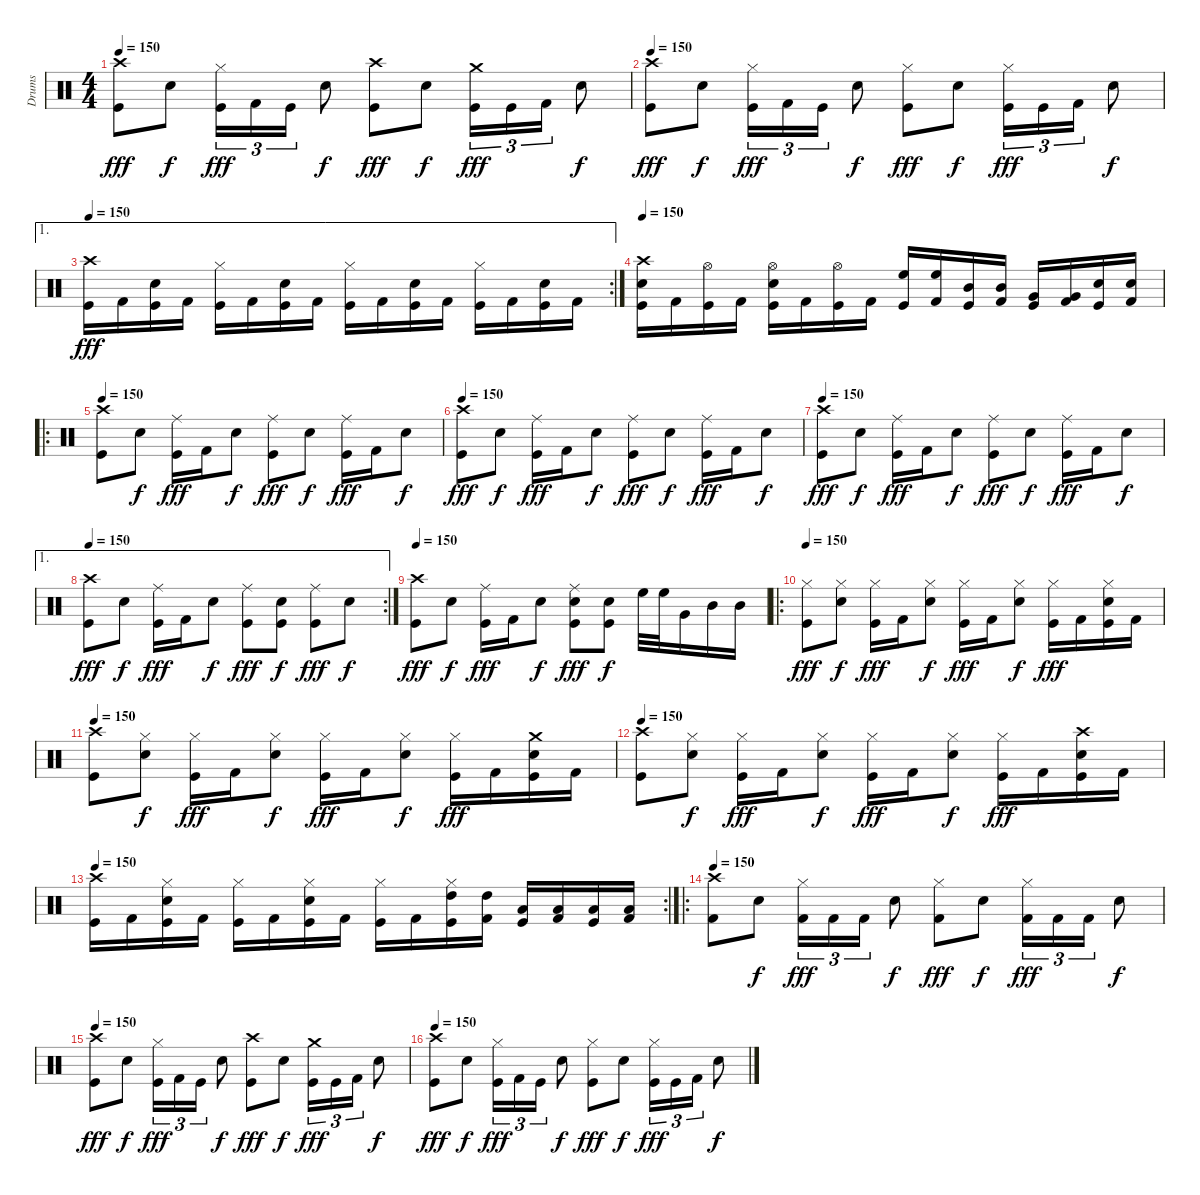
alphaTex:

\track ("Drums" "Drums") {instrument percussion}
\staff {score}
\articulation defaults
\ts (4 4)
\tempo 150
\clef neutral
\ks c
("Crash high (hit)" "Kick (hit)").8{dy fff} "Snare (hit) 2".8{dy f} ("Hi-Hat (closed)" "Kick (hit)").16{tu (3 2) dy fff} "Kick (hit) 2".16{tu (3 2)} "Kick (hit)".16{tu (3 2)} "Snare (hit) 2".8{dy f} ("Crash high (hit)" "Kick (hit)").8{dy fff} "Snare (hit) 2".8{dy f} ("Crash medium (hit)" "Kick (hit)").16{tu (3 2) dy fff} "Kick (hit)".16{tu (3 2)} "Kick (hit) 2".16{tu (3 2)} "Snare (hit) 2".8{dy f} |
\tempo 150
("Crash high (hit)" "Kick (hit)").8{dy fff} "Snare (hit) 2".8{dy f} ("Hi-Hat (closed)" "Kick (hit)").16{tu (3 2) dy fff} "Kick (hit) 2".16{tu (3 2)} "Kick (hit)".16{tu (3 2)} "Snare (hit) 2".8{dy f} ("Hi-Hat (closed)" "Kick (hit)").8{dy fff} "Snare (hit) 2".8{dy f} ("Hi-Hat (closed)" "Kick (hit)").16{tu (3 2) dy fff} "Kick (hit)".16{tu (3 2)} "Kick (hit) 2".16{tu (3 2)} "Snare (hit) 2".8{dy f} |
\ae 1
\rc 2
\tempo 150
("Crash high (hit)" "Kick (hit)").16{dy fff} "Kick (hit) 2".16 ("Snare (hit) 2" "Kick (hit)").16 "Kick (hit) 2".16 ("Hi-Hat (closed)" "Kick (hit)").16 "Kick (hit) 2".16 ("Snare (hit) 2" "Kick (hit)").16 "Kick (hit) 2".16 ("Hi-Hat (closed)" "Kick (hit)").16 "Kick (hit) 2".16 ("Snare (hit) 2" "Kick (hit)").16 "Kick (hit) 2".16 ("Hi-Hat (closed)" "Kick (hit)").16 "Kick (hit) 2".16 ("Snare (hit) 2" "Kick (hit)").16 "Kick (hit) 2".16 |
\tempo 150
("Crash high (hit)" "Snare (hit) 2" "Kick (hit)").16 "Kick (hit) 2".16 ("Hi-Hat (open)" "Kick (hit)").16 "Kick (hit) 2".16 ("Hi-Hat (open)" "Snare (hit) 2" "Kick (hit)").16 "Kick (hit) 2".16 ("Hi-Hat (open)" "Kick (hit)").16 "Kick (hit) 2".16 ("High Floor Tom (hit)" "Kick (hit)").16 ("High Floor Tom (hit)" "Kick (hit) 2").16 ("Mid Tom (hit)" "Kick (hit)").16 ("Mid Tom (hit)" "Kick (hit) 2").16 ("Very Low Tom (hit)" "Kick (hit)").16 ("Very Low Tom (hit)" "Kick (hit) 2").16 ("Snare (hit) 2" "Kick (hit)").16 ("Snare (hit) 2" "Kick (hit) 2").16 |
\ro
\tempo 150
("Crash high (hit)" "Kick (hit)").8 "Snare (hit) 2".8{dy f} ("Ride (middle)" "Kick (hit)").16{dy fff} "Kick (hit) 2".16 "Snare (hit) 2".8{dy f} ("Ride (middle)" "Kick (hit)").8{dy fff} "Snare (hit) 2".8{dy f} ("Ride (middle)" "Kick (hit)").16{dy fff} "Kick (hit) 2".16 "Snare (hit) 2".8{dy f} |
\tempo 150
("Crash high (hit)" "Kick (hit)").8{dy fff} "Snare (hit) 2".8{dy f} ("Ride (middle)" "Kick (hit)").16{dy fff} "Kick (hit) 2".16 "Snare (hit) 2".8{dy f} ("Ride (middle)" "Kick (hit)").8{dy fff} "Snare (hit) 2".8{dy f} ("Ride (middle)" "Kick (hit)").16{dy fff} "Kick (hit) 2".16 "Snare (hit) 2".8{dy f} |
\tempo 150
("Crash high (hit)" "Kick (hit)").8{dy fff} "Snare (hit) 2".8{dy f} ("Ride (middle)" "Kick (hit)").16{dy fff} "Kick (hit) 2".16 "Snare (hit) 2".8{dy f} ("Ride (middle)" "Kick (hit)").8{dy fff} "Snare (hit) 2".8{dy f} ("Ride (middle)" "Kick (hit)").16{dy fff} "Kick (hit) 2".16 "Snare (hit) 2".8{dy f} |
\ae 1
\rc 2
\tempo 150
("Crash high (hit)" "Kick (hit)").8{dy fff} "Snare (hit) 2".8{dy f} ("Ride (middle)" "Kick (hit)").16{dy fff} "Kick (hit) 2".16 "Snare (hit) 2".8{dy f} ("Ride (middle)" "Kick (hit)").8{dy fff} ("Snare (hit) 2" "Kick (hit)").8{dy f} ("Ride (middle)" "Kick (hit)").8{dy fff} "Snare (hit) 2".8{dy f} |
\tempo 150
("Crash high (hit)" "Kick (hit)").8{dy fff} "Snare (hit) 2".8{dy f} ("Ride (middle)" "Kick (hit)").16{dy fff} "Kick (hit) 2".16 "Snare (hit) 2".8{dy f} ("Ride (middle)" "Snare (hit) 2" "Kick (hit)").8{dy fff} ("Snare (hit) 2" "Kick (hit)").8{dy f} "High Floor Tom (hit)".32 "High Floor Tom (hit)".32 "Very Low Tom (hit)".16 "Mid Tom (hit)".16 "Mid Tom (hit)".16 |
\ro
\tempo 150
("Hi-Hat (closed)" "Kick (hit)").8{dy fff} ("Hi-Hat (closed)" "Snare (hit) 2").8{dy f} ("Hi-Hat (closed)" "Kick (hit)").16{dy fff} "Kick (hit) 2".16 ("Hi-Hat (closed)" "Snare (hit) 2").8{dy f} ("Hi-Hat (closed)" "Kick (hit)").16{dy fff} "Kick (hit) 2".16 ("Hi-Hat (closed)" "Snare (hit) 2").8{dy f} ("Hi-Hat (closed)" "Kick (hit)").16{dy fff} "Kick (hit) 2".16 ("Hi-Hat (closed)" "Snare (hit) 2" "Kick (hit)").16 "Kick (hit) 2".16 |
\tempo 150
("Crash high (hit)" "Kick (hit)").8 ("Hi-Hat (closed)" "Snare (hit) 2").8{dy f} ("Hi-Hat (closed)" "Kick (hit)").16{dy fff} "Kick (hit) 2".16 ("Hi-Hat (closed)" "Snare (hit) 2").8{dy f} ("Hi-Hat (closed)" "Kick (hit)").16{dy fff} "Kick (hit) 2".16 ("Hi-Hat (closed)" "Snare (hit) 2").8{dy f} ("Hi-Hat (closed)" "Kick (hit)").16{dy fff} "Kick (hit) 2".16 ("Crash medium (hit)" "Snare (hit) 2" "Kick (hit)").16 "Kick (hit) 2".16 |
\tempo 150
("Crash high (hit)" "Kick (hit)").8 ("Hi-Hat (closed)" "Snare (hit) 2").8{dy f} ("Hi-Hat (closed)" "Kick (hit)").16{dy fff} "Kick (hit) 2".16 ("Hi-Hat (closed)" "Snare (hit) 2").8{dy f} ("Hi-Hat (closed)" "Kick (hit)").16{dy fff} "Kick (hit) 2".16 ("Hi-Hat (closed)" "Snare (hit) 2").8{dy f} ("Hi-Hat (closed)" "Kick (hit)").16{dy fff} "Kick (hit) 2".16 ("Crash high (hit)" "Snare (hit) 2" "Kick (hit)").16 "Kick (hit) 2".16 |
\rc 2
\tempo 150
("Crash high (hit)" "Kick (hit)").16 "Kick (hit) 2".16 ("Hi-Hat (closed)" "Snare (hit) 2" "Kick (hit)").16 "Kick (hit) 2".16 ("Hi-Hat (closed)" "Kick (hit)").16 "Kick (hit) 2".16 ("Hi-Hat (closed)" "Snare (hit) 2" "Kick (hit)").16 "Kick (hit) 2".16 ("Hi-Hat (closed)" "Kick (hit)").16 "Kick (hit) 2".16 ("Hi-Hat (closed)" "High Tom (hit)" "Kick (hit)").16 ("High Tom (hit)" "Kick (hit) 2").16 ("Low Floor Tom (hit)" "Kick (hit)").16 ("Low Floor Tom (hit)" "Kick (hit) 2").16 ("Low Tom (hit)" "Kick (hit)").16 ("Low Tom (hit)" "Kick (hit) 2").16 |
\ro
\tempo 150
("Crash high (hit)" "Kick (hit) 2").8 "Snare (hit) 2".8{dy f} ("Hi-Hat (closed)" "Kick (hit) 2").16{tu (3 2) dy fff} "Kick (hit) 2".16{tu (3 2)} "Kick (hit) 2".16{tu (3 2)} "Snare (hit) 2".8{dy f} ("Hi-Hat (closed)" "Kick (hit) 2").8{dy fff} "Snare (hit) 2".8{dy f} ("Hi-Hat (closed)" "Kick (hit) 2").16{tu (3 2) dy fff} "Kick (hit) 2".16{tu (3 2)} "Kick (hit) 2".16{tu (3 2)} "Snare (hit) 2".8{dy f} |
\tempo 150
("Crash high (hit)" "Kick (hit)").8{dy fff} "Snare (hit) 2".8{dy f} ("Hi-Hat (closed)" "Kick (hit)").16{tu (3 2) dy fff} "Kick (hit) 2".16{tu (3 2)} "Kick (hit)".16{tu (3 2)} "Snare (hit) 2".8{dy f} ("Crash high (hit)" "Kick (hit)").8{dy fff} "Snare (hit) 2".8{dy f} ("Crash medium (hit)" "Kick (hit)").16{tu (3 2) dy fff} "Kick (hit)".16{tu (3 2)} "Kick (hit) 2".16{tu (3 2)} "Snare (hit) 2".8{dy f} |
\tempo 150
("Crash high (hit)" "Kick (hit)").8{dy fff} "Snare (hit) 2".8{dy f} ("Hi-Hat (closed)" "Kick (hit)").16{tu (3 2) dy fff} "Kick (hit) 2".16{tu (3 2)} "Kick (hit)".16{tu (3 2)} "Snare (hit) 2".8{dy f} ("Hi-Hat (closed)" "Kick (hit)").8{dy fff} "Snare (hit) 2".8{dy f} ("Hi-Hat (closed)" "Kick (hit)").16{tu (3 2) dy fff} "Kick (hit)".16{tu (3 2)} "Kick (hit) 2".16{tu (3 2)} "Snare (hit) 2".8{dy f}
